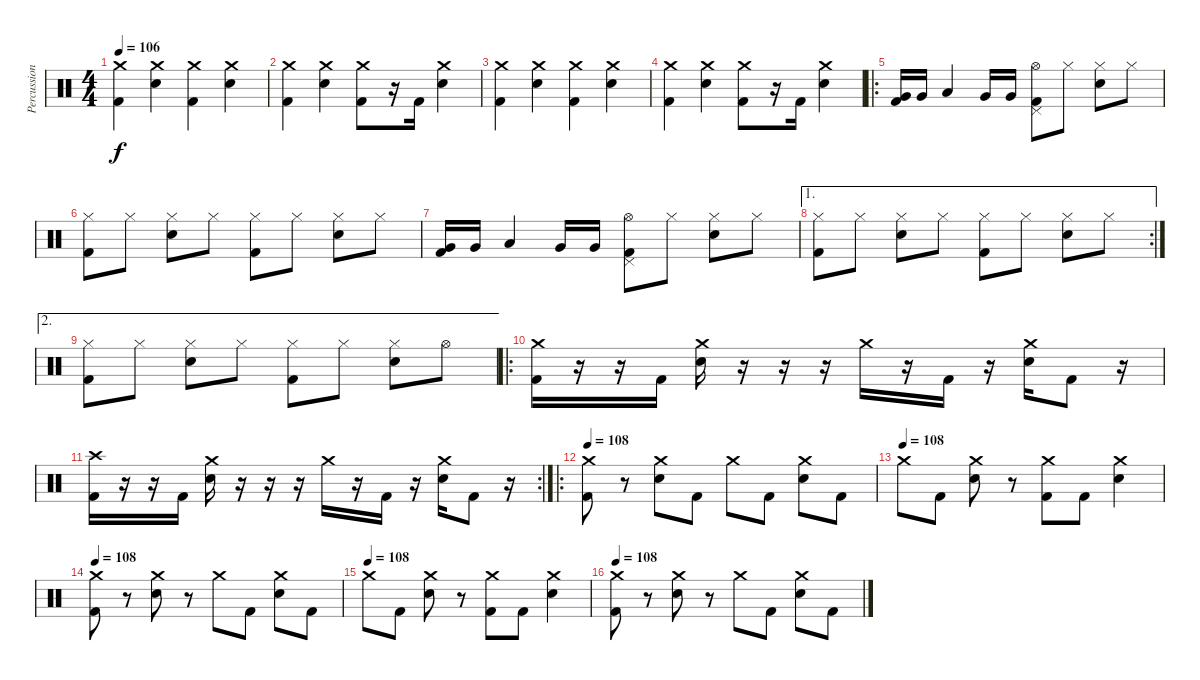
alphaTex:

\track ("Percussion" "Percussion") {instrument percussion}
\staff {score}
\articulation defaults
\ts (4 4)
\tempo 106
\clef neutral
\ks c
("Crash medium (hit)" "Kick (hit) 2").4{dy f} ("Crash medium (hit)" "Electric Snare (hit)").4 ("Crash medium (hit)" "Kick (hit) 2").4 ("Crash medium (hit)" "Electric Snare (hit)").4 |
("Crash medium (hit)" "Kick (hit) 2").4 ("Crash medium (hit)" "Electric Snare (hit)").4 ("Crash medium (hit)" "Kick (hit) 2").8 r.16 "Kick (hit) 2".16 ("Crash medium (hit)" "Electric Snare (hit)").4 |
("Crash medium (hit)" "Kick (hit) 2").4 ("Crash medium (hit)" "Electric Snare (hit)").4 ("Crash medium (hit)" "Kick (hit) 2").4 ("Crash medium (hit)" "Electric Snare (hit)").4 |
("Crash medium (hit)" "Kick (hit) 2").4 ("Crash medium (hit)" "Electric Snare (hit)").4 ("Crash medium (hit)" "Kick (hit) 2").8 r.16 "Kick (hit) 2".16 ("Crash medium (hit)" "Electric Snare (hit)").4 |
\ro
("Very Low Tom (hit)" "Kick (hit) 2").16 "Very Low Tom (hit)".16 "Low Tom (hit)".4 "Very Low Tom (hit)".16 "Very Low Tom (hit)".16 ("Pedal Hi-Hat (hit)" "Hi-Hat (open)" "Kick (hit) 2").8 "Hi-Hat (closed)".8 ("Hi-Hat (closed)" "Electric Snare (hit)").8 "Hi-Hat (closed)".8 |
("Hi-Hat (closed)" "Kick (hit) 2").8 "Hi-Hat (closed)".8 ("Hi-Hat (closed)" "Electric Snare (hit)").8 "Hi-Hat (closed)".8 ("Hi-Hat (closed)" "Kick (hit) 2").8 "Hi-Hat (closed)".8 ("Hi-Hat (closed)" "Electric Snare (hit)").8 "Hi-Hat (closed)".8 |
("Very Low Tom (hit)" "Kick (hit) 2").16 "Very Low Tom (hit)".16 "Low Tom (hit)".4 "Very Low Tom (hit)".16 "Very Low Tom (hit)".16 ("Pedal Hi-Hat (hit)" "Hi-Hat (open)" "Kick (hit) 2").8 "Hi-Hat (closed)".8 ("Hi-Hat (closed)" "Electric Snare (hit)").8 "Hi-Hat (closed)".8 |
\ae 1
\rc 2
("Hi-Hat (closed)" "Kick (hit) 2").8 "Hi-Hat (closed)".8 ("Hi-Hat (closed)" "Electric Snare (hit)").8 "Hi-Hat (closed)".8 ("Hi-Hat (closed)" "Kick (hit) 2").8 "Hi-Hat (closed)".8 ("Hi-Hat (closed)" "Electric Snare (hit)").8 "Hi-Hat (closed)".8 |
\ae 2
("Hi-Hat (closed)" "Kick (hit) 2").8 "Hi-Hat (closed)".8 ("Hi-Hat (closed)" "Electric Snare (hit)").8 "Hi-Hat (closed)".8 ("Hi-Hat (closed)" "Kick (hit) 2").8 "Hi-Hat (closed)".8 ("Hi-Hat (closed)" "Electric Snare (hit)").8 "Hi-Hat (open)".8 |
\ro
("Crash medium (hit)" "Kick (hit) 2").16 r.16 r.16 "Kick (hit) 2".16 ("Crash medium (hit)" "Electric Snare (hit)").16 r.16 r.16 r.16 "Crash medium (hit)".16 r.16 "Kick (hit) 2".16 r.16 ("Crash medium (hit)" "Electric Snare (hit)").16 "Kick (hit) 2".8 r.16 |
\rc 2
("Crash high (hit)" "Kick (hit) 2").16 r.16 r.16 "Kick (hit) 2".16 ("Crash medium (hit)" "Electric Snare (hit)").16 r.16 r.16 r.16 "Crash medium (hit)".16 r.16 "Kick (hit) 2".16 r.16 ("Crash medium (hit)" "Electric Snare (hit)").16 "Kick (hit) 2".8 r.16 |
\ro
\tempo 108
("Crash medium (hit)" "Kick (hit) 2").8 r.8 ("Crash medium (hit)" "Electric Snare (hit)").8 "Kick (hit) 2".8 "Crash medium (hit)".8 "Kick (hit) 2".8 ("Crash medium (hit)" "Electric Snare (hit)").8 "Kick (hit) 2".8 |
\tempo (108)
"Crash medium (hit)".8 "Kick (hit) 2".8 ("Crash medium (hit)" "Electric Snare (hit)").8 r.8 ("Crash medium (hit)" "Kick (hit) 2").8 "Kick (hit) 2".8 ("Crash medium (hit)" "Electric Snare (hit)").4 |
\tempo 108
("Crash medium (hit)" "Kick (hit) 2").8 r.8 ("Crash medium (hit)" "Electric Snare (hit)").8 r.8 "Crash medium (hit)".8 "Kick (hit) 2".8 ("Crash medium (hit)" "Electric Snare (hit)").8 "Kick (hit) 2".8 |
\tempo (108)
"Crash medium (hit)".8 "Kick (hit) 2".8 ("Crash medium (hit)" "Electric Snare (hit)").8 r.8 ("Crash medium (hit)" "Kick (hit) 2").8 "Kick (hit) 2".8 ("Crash medium (hit)" "Electric Snare (hit)").4 |
\tempo 108
("Crash medium (hit)" "Kick (hit) 2").8 r.8 ("Crash medium (hit)" "Electric Snare (hit)").8 r.8 "Crash medium (hit)".8 "Kick (hit) 2".8 ("Crash medium (hit)" "Electric Snare (hit)").8 "Kick (hit) 2".8
